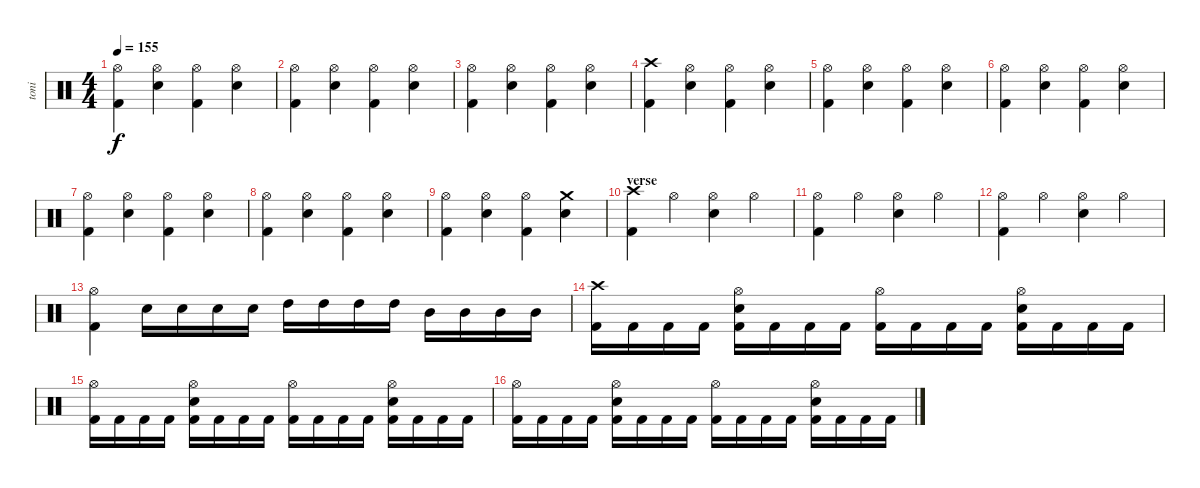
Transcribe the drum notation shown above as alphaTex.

\track ("toni" "toni") {instrument percussion}
\staff {score}
\articulation defaults
\ts (4 4)
\tempo 155
\clef neutral
\ks c
("Hi-Hat (open)" "Kick (hit) 2").4{dy f} ("Hi-Hat (open)" "Snare (hit) 2").4 ("Hi-Hat (open)" "Kick (hit) 2").4 ("Hi-Hat (open)" "Snare (hit) 2").4 |
("Hi-Hat (open)" "Kick (hit) 2").4 ("Hi-Hat (open)" "Snare (hit) 2").4 ("Hi-Hat (open)" "Kick (hit) 2").4 ("Hi-Hat (open)" "Snare (hit) 2").4 |
("Hi-Hat (open)" "Kick (hit) 2").4 ("Hi-Hat (open)" "Snare (hit) 2").4 ("Hi-Hat (open)" "Kick (hit) 2").4 ("Hi-Hat (open)" "Snare (hit) 2").4 |
("Crash high (hit)" "Kick (hit) 2").4 ("Hi-Hat (open)" "Snare (hit) 2").4 ("Hi-Hat (open)" "Kick (hit) 2").4 ("Hi-Hat (open)" "Snare (hit) 2").4 |
("Hi-Hat (open)" "Kick (hit) 2").4 ("Hi-Hat (open)" "Snare (hit) 2").4 ("Hi-Hat (open)" "Kick (hit) 2").4 ("Hi-Hat (open)" "Snare (hit) 2").4 |
("Hi-Hat (open)" "Kick (hit) 2").4 ("Hi-Hat (open)" "Snare (hit) 2").4 ("Hi-Hat (open)" "Kick (hit) 2").4 ("Hi-Hat (open)" "Snare (hit) 2").4 |
("Hi-Hat (open)" "Kick (hit) 2").4 ("Hi-Hat (open)" "Snare (hit) 2").4 ("Hi-Hat (open)" "Kick (hit) 2").4 ("Hi-Hat (open)" "Snare (hit) 2").4 |
("Hi-Hat (open)" "Kick (hit) 2").4 ("Hi-Hat (open)" "Snare (hit) 2").4 ("Hi-Hat (open)" "Kick (hit) 2").4 ("Hi-Hat (open)" "Snare (hit) 2").4 |
("Hi-Hat (open)" "Kick (hit) 2").4 ("Hi-Hat (open)" "Snare (hit) 2").4 ("Hi-Hat (open)" "Kick (hit) 2").4 ("Crash medium (hit)" "Snare (hit) 2").4 |
\section ("" "verse")
("Crash high (hit)" "Kick (hit) 2").4 "Hi-Hat (open)".4 ("Hi-Hat (open)" "Snare (hit) 2").4 "Hi-Hat (open)".4 |
("Hi-Hat (open)" "Kick (hit) 2").4 "Hi-Hat (open)".4 ("Hi-Hat (open)" "Snare (hit) 2").4 "Hi-Hat (open)".4 |
("Hi-Hat (open)" "Kick (hit) 2").4 "Hi-Hat (open)".4 ("Hi-Hat (open)" "Snare (hit) 2").4 "Hi-Hat (open)".4 |
("Hi-Hat (open)" "Kick (hit) 2").4 "Snare (hit) 2".16 "Snare (hit) 2".16 "Snare (hit) 2".16 "Snare (hit) 2".16 "High Tom (hit)".16 "High Tom (hit)".16 "High Tom (hit)".16 "High Tom (hit)".16 "Mid Tom (hit)".16 "Mid Tom (hit)".16 "Mid Tom (hit)".16 "Mid Tom (hit)".16 |
("Crash high (hit)" "Kick (hit) 2").16 "Kick (hit) 2".16 "Kick (hit) 2".16 "Kick (hit) 2".16 ("Hi-Hat (open)" "Snare (hit) 2" "Kick (hit) 2").16 "Kick (hit) 2".16 "Kick (hit) 2".16 "Kick (hit) 2".16 ("Hi-Hat (open)" "Kick (hit) 2").16 "Kick (hit) 2".16 "Kick (hit) 2".16 "Kick (hit) 2".16 ("Hi-Hat (open)" "Snare (hit) 2" "Kick (hit) 2").16 "Kick (hit) 2".16 "Kick (hit) 2".16 "Kick (hit) 2".16 |
("Hi-Hat (open)" "Kick (hit) 2").16 "Kick (hit) 2".16 "Kick (hit) 2".16 "Kick (hit) 2".16 ("Hi-Hat (open)" "Snare (hit) 2" "Kick (hit) 2").16 "Kick (hit) 2".16 "Kick (hit) 2".16 "Kick (hit) 2".16 ("Hi-Hat (open)" "Kick (hit) 2").16 "Kick (hit) 2".16 "Kick (hit) 2".16 "Kick (hit) 2".16 ("Hi-Hat (open)" "Snare (hit) 2" "Kick (hit) 2").16 "Kick (hit) 2".16 "Kick (hit) 2".16 "Kick (hit) 2".16 |
("Hi-Hat (open)" "Kick (hit) 2").16 "Kick (hit) 2".16 "Kick (hit) 2".16 "Kick (hit) 2".16 ("Hi-Hat (open)" "Snare (hit) 2" "Kick (hit) 2").16 "Kick (hit) 2".16 "Kick (hit) 2".16 "Kick (hit) 2".16 ("Hi-Hat (open)" "Kick (hit) 2").16 "Kick (hit) 2".16 "Kick (hit) 2".16 "Kick (hit) 2".16 ("Hi-Hat (open)" "Snare (hit) 2" "Kick (hit) 2").16 "Kick (hit) 2".16 "Kick (hit) 2".16 "Kick (hit) 2".16
